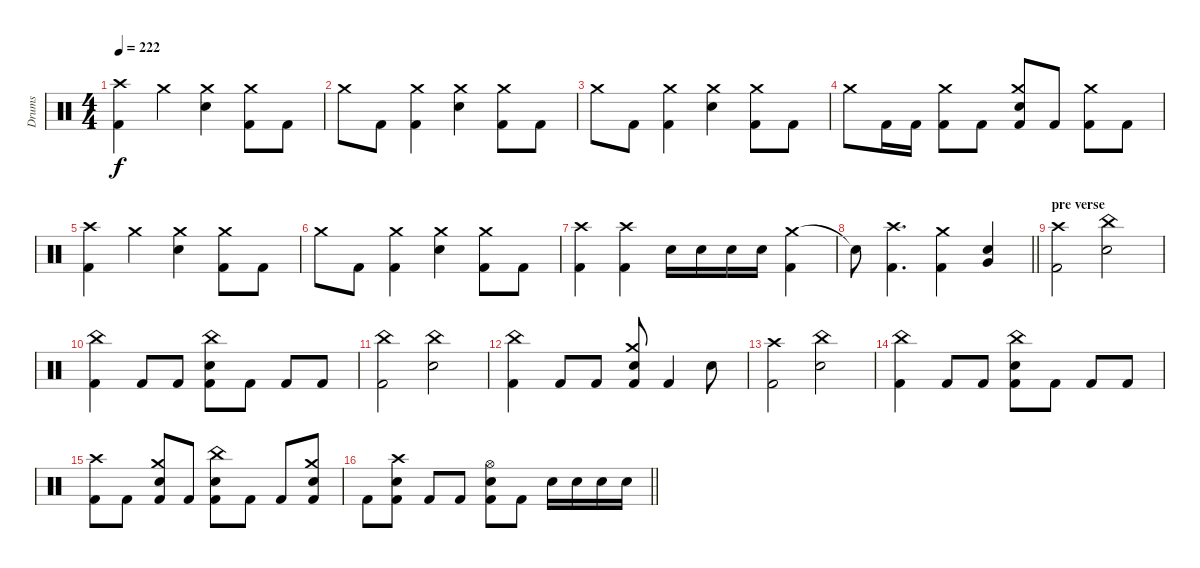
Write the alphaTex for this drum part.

\track ("Drums" "Drums") {instrument percussion}
\staff {score}
\articulation defaults
\ts (4 4)
\tempo 222
\clef neutral
\ks c
("Crash high (hit)" "Kick (hit) 2").4{dy f} "Crash medium (hit)".4 ("Crash medium (hit)" "Electric Snare (hit)").4 ("Crash medium (hit)" "Kick (hit) 2").8 "Kick (hit) 2".8 |
"Crash medium (hit)".8 "Kick (hit) 2".8 ("Crash medium (hit)" "Kick (hit) 2").4 ("Crash medium (hit)" "Electric Snare (hit)").4 ("Crash medium (hit)" "Kick (hit) 2").8 "Kick (hit) 2".8 |
"Crash medium (hit)".8 "Kick (hit) 2".8 ("Crash medium (hit)" "Kick (hit) 2").4 ("Crash medium (hit)" "Electric Snare (hit)").4 ("Crash medium (hit)" "Kick (hit) 2").8 "Kick (hit) 2".8 |
"Crash medium (hit)".8 "Kick (hit) 2".16 "Kick (hit) 2".16 ("Crash medium (hit)" "Kick (hit) 2").8 "Kick (hit) 2".8 ("Crash medium (hit)" "Electric Snare (hit)" "Kick (hit) 2").8 "Kick (hit) 2".8 ("Crash medium (hit)" "Kick (hit) 2").8 "Kick (hit) 2".8 |
("Crash high (hit)" "Kick (hit) 2").4 "Crash medium (hit)".4 ("Crash medium (hit)" "Electric Snare (hit)").4 ("Crash medium (hit)" "Kick (hit) 2").8 "Kick (hit) 2".8 |
"Crash medium (hit)".8 "Kick (hit) 2".8 ("Crash medium (hit)" "Kick (hit) 2").4 ("Crash medium (hit)" "Electric Snare (hit)").4 ("Crash medium (hit)" "Kick (hit) 2").8 "Kick (hit) 2".8 |
("Crash high (hit)" "Kick (hit) 2").4 ("Crash high (hit)" "Kick (hit) 2").4 "Electric Snare (hit)".16 "Electric Snare (hit)".16 "Electric Snare (hit)".16 "Electric Snare (hit)".16 ("Crash medium (hit)" "Kick (hit) 2").4 |
\barLineRight lightlight "Snare (hit)"{t}.8
("Crash high (hit)" "Kick (hit) 2").4{d} ("Crash medium (hit)" "Kick (hit) 2").4 ("Very Low Tom (hit)" "Electric Snare (hit)").4 |
\section ("" "pre verse")
("Crash high (hit)" "Kick (hit) 2").2 ("China (hit)" "Electric Snare (hit)").2 |
("China (hit)" "Kick (hit) 2").4 "Kick (hit) 2".8 "Kick (hit) 2".8 ("China (hit)" "Electric Snare (hit)" "Kick (hit) 2").8 "Kick (hit) 2".8 "Kick (hit) 2".8 "Kick (hit) 2".8 |
("China (hit)" "Kick (hit) 2").2 ("China (hit)" "Electric Snare (hit)").2 |
("China (hit)" "Kick (hit) 2").4 "Kick (hit) 2".8 "Kick (hit) 2".8 ("Crash medium (hit)" "Electric Snare (hit)" "Kick (hit) 2").8 "Kick (hit) 2".4 "Electric Snare (hit)".8 |
("Crash high (hit)" "Kick (hit) 2").2 ("China (hit)" "Electric Snare (hit)").2 |
("China (hit)" "Kick (hit) 2").4 "Kick (hit) 2".8 "Kick (hit) 2".8 ("China (hit)" "Electric Snare (hit)" "Kick (hit) 2").8 "Kick (hit) 2".8 "Kick (hit) 2".8 "Kick (hit) 2".8 |
("Crash high (hit)" "Kick (hit) 2").8 "Kick (hit) 2".8 ("Crash medium (hit)" "Electric Snare (hit)" "Kick (hit) 2").8 "Kick (hit) 2".8 ("China (hit)" "Electric Snare (hit)" "Kick (hit) 2").8 "Kick (hit) 2".8 "Kick (hit) 2".8 ("Crash medium (hit)" "Electric Snare (hit)" "Kick (hit) 2").8 |
\barLineRight lightlight "Kick (hit) 2".8
("Crash high (hit)" "Electric Snare (hit)" "Kick (hit) 2").8 "Kick (hit) 2".8 "Kick (hit) 2".8 ("Hi-Hat (open)" "Electric Snare (hit)" "Kick (hit) 2").8 "Kick (hit) 2".8 "Electric Snare (hit)".16 "Electric Snare (hit)".16 "Electric Snare (hit)".16 "Electric Snare (hit)".16
